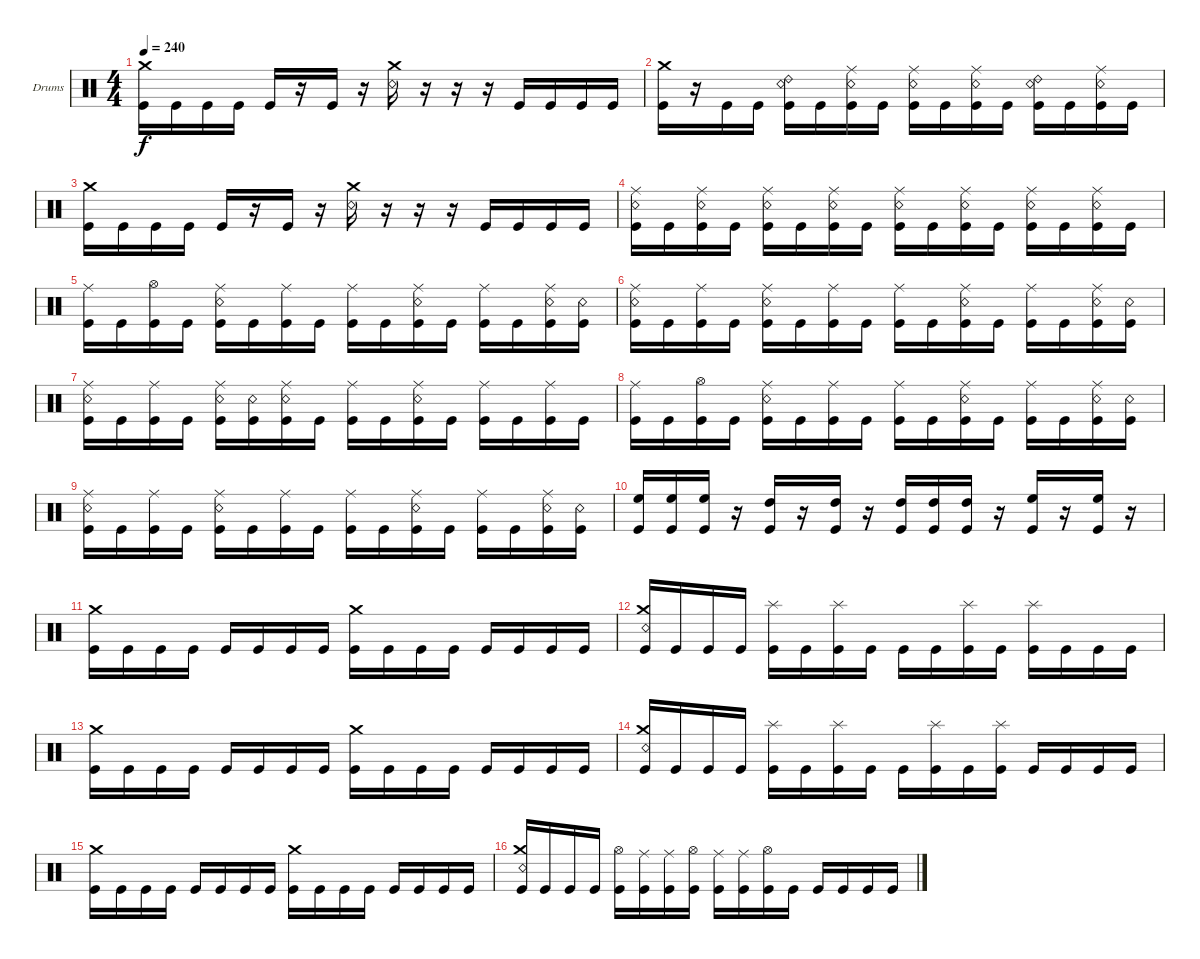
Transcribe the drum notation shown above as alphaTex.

\bracketExtendMode groupsimilarinstruments
\firstSystemTrackNameOrientation horizontal
\otherSystemsTrackNameOrientation horizontal
\track ("Drumkit" "Drums") {instrument percussion}
\staff {score}
\articulation defaults
\ts (4 4)
\tempo 240
\clef neutral
\ks c
("Kick (hit)" "Crash medium (hit)").16{dy f} "Kick (hit)".16 "Kick (hit)".16 "Kick (hit)".16 "Kick (hit)".16 r.16 "Kick (hit)".16 r.16 ("Crash medium (hit)" "Snare (rim shot)").16 r.16 r.16 r.16 "Kick (hit)".16 "Kick (hit)".16 "Kick (hit)".16 "Kick (hit)".16 |
("Kick (hit)" "Crash medium (hit)").16 r.16 "Kick (hit)".16 "Kick (hit)".16 ("Kick (hit)" "Ride (bell) 2" "Snare (rim shot)").16 "Kick (hit)".16 ("Kick (hit)" "Ride (middle)" "Snare (rim shot)").16 "Kick (hit)".16 ("Kick (hit)" "Ride (middle)" "Snare (rim shot)").16 "Kick (hit)".16 ("Kick (hit)" "Ride (middle)" "Snare (rim shot)").16 "Kick (hit)".16 ("Kick (hit)" "Ride (bell) 2" "Snare (rim shot)").16 "Kick (hit)".16 ("Kick (hit)" "Ride (middle)" "Snare (rim shot)").16 "Kick (hit)".16 |
("Kick (hit)" "Crash medium (hit)").16 "Kick (hit)".16 "Kick (hit)".16 "Kick (hit)".16 "Kick (hit)".16 r.16 "Kick (hit)".16 r.16 ("Crash medium (hit)" "Snare (rim shot)").16 r.16 r.16 r.16 "Kick (hit)".16 "Kick (hit)".16 "Kick (hit)".16 "Kick (hit)".16 |
("Kick (hit)" "Ride (middle)" "Snare (rim shot)").16 "Kick (hit)".16 ("Kick (hit)" "Ride (middle)" "Snare (rim shot)").16 "Kick (hit)".16 ("Kick (hit)" "Ride (middle)" "Snare (rim shot)").16 "Kick (hit)".16 ("Kick (hit)" "Ride (middle)" "Snare (rim shot)").16 "Kick (hit)".16 ("Kick (hit)" "Ride (middle)" "Snare (rim shot)").16 "Kick (hit)".16 ("Kick (hit)" "Ride (middle)" "Snare (rim shot)").16 "Kick (hit)".16 ("Kick (hit)" "Ride (middle)" "Snare (rim shot)").16 "Kick (hit)".16 ("Kick (hit)" "Ride (middle)" "Snare (rim shot)").16 "Kick (hit)".16 |
("Ride (middle)" "Kick (hit)").16 "Kick (hit)".16 ("Kick (hit)" "Hi-Hat (open)").16 "Kick (hit)".16 ("Ride (middle)" "Snare (rim shot)" "Kick (hit)").16 "Kick (hit)".16 ("Kick (hit)" "Ride (middle)").16 "Kick (hit)".16 ("Ride (middle)" "Kick (hit)").16 "Kick (hit)".16 ("Snare (rim shot)" "Kick (hit)" "Ride (middle)").16 "Kick (hit)".16 ("Ride (middle)" "Kick (hit)").16 "Kick (hit)".16 ("Snare (rim shot)" "Kick (hit)" "Ride (middle)").16 ("Snare (rim shot)" "Kick (hit)").16 |
("Ride (middle)" "Snare (rim shot)" "Kick (hit)").16 "Kick (hit)".16 ("Kick (hit)" "Ride (middle)").16 "Kick (hit)".16 ("Ride (middle)" "Snare (rim shot)" "Kick (hit)").16 "Kick (hit)".16 ("Kick (hit)" "Ride (middle)").16 "Kick (hit)".16 ("Ride (middle)" "Kick (hit)").16 "Kick (hit)".16 ("Snare (rim shot)" "Kick (hit)" "Ride (middle)").16 "Kick (hit)".16 ("Ride (middle)" "Kick (hit)").16 "Kick (hit)".16 ("Snare (rim shot)" "Kick (hit)" "Ride (middle)").16 ("Snare (rim shot)" "Kick (hit)").16 |
("Ride (middle)" "Snare (rim shot)" "Kick (hit)").16 "Kick (hit)".16 ("Kick (hit)" "Ride (middle)").16 "Kick (hit)".16 ("Ride (middle)" "Snare (rim shot)" "Kick (hit)").16 ("Snare (rim shot)" "Kick (hit)").16 ("Snare (rim shot)" "Kick (hit)" "Ride (middle)").16 "Kick (hit)".16 ("Ride (middle)" "Kick (hit)").16 "Kick (hit)".16 ("Snare (rim shot)" "Kick (hit)" "Ride (middle)").16 "Kick (hit)".16 ("Ride (middle)" "Kick (hit)").16 "Kick (hit)".16 ("Kick (hit)" "Ride (middle)").16 "Kick (hit)".16 |
("Ride (middle)" "Kick (hit)").16 "Kick (hit)".16 ("Kick (hit)" "Hi-Hat (open)").16 "Kick (hit)".16 ("Ride (middle)" "Snare (rim shot)" "Kick (hit)").16 "Kick (hit)".16 ("Kick (hit)" "Ride (middle)").16 "Kick (hit)".16 ("Ride (middle)" "Kick (hit)").16 "Kick (hit)".16 ("Snare (rim shot)" "Kick (hit)" "Ride (middle)").16 "Kick (hit)".16 ("Ride (middle)" "Kick (hit)").16 "Kick (hit)".16 ("Snare (rim shot)" "Kick (hit)" "Ride (middle)").16 ("Snare (rim shot)" "Kick (hit)").16 |
("Ride (middle)" "Snare (rim shot)" "Kick (hit)").16 "Kick (hit)".16 ("Kick (hit)" "Ride (middle)").16 "Kick (hit)".16 ("Ride (middle)" "Snare (rim shot)" "Kick (hit)").16 "Kick (hit)".16 ("Kick (hit)" "Ride (middle)").16 "Kick (hit)".16 ("Ride (middle)" "Kick (hit)").16 "Kick (hit)".16 ("Snare (rim shot)" "Kick (hit)" "Ride (middle)").16 "Kick (hit)".16 ("Ride (middle)" "Kick (hit)").16 "Kick (hit)".16 ("Snare (rim shot)" "Kick (hit)" "Ride (middle)").16 ("Snare (rim shot)" "Kick (hit)").16 |
("Kick (hit)" "High Floor Tom (hit)").16 ("Kick (hit)" "High Floor Tom (hit)").16 ("Kick (hit)" "High Floor Tom (hit)").16 r.16 ("Kick (hit)" "High Tom (hit)").16 r.16 ("Kick (hit)" "High Tom (hit)").16 r.16 ("Kick (hit)" "High Tom (hit)").16 ("Kick (hit)" "High Tom (hit)").16 ("Kick (hit)" "High Tom (hit)").16 r.16 ("Kick (hit)" "High Floor Tom (hit)").16 r.16 ("Kick (hit)" "High Floor Tom (hit)").16 r.16 |
("Kick (hit)" "Crash medium (hit)").16 "Kick (hit)".16 "Kick (hit)".16 "Kick (hit)".16 "Kick (hit)".16 "Kick (hit)".16 "Kick (hit)".16 "Kick (hit)".16 ("Kick (hit)" "Crash medium (hit)").16 "Kick (hit)".16 "Kick (hit)".16 "Kick (hit)".16 "Kick (hit)".16 "Kick (hit)".16 "Kick (hit)".16 "Kick (hit)".16 |
("Kick (hit)" "Crash medium (hit)" "Snare (rim shot)").16 "Kick (hit)".16 "Kick (hit)".16 "Kick (hit)".16 ("Kick (hit)" "Splash (hit)").16 "Kick (hit)".16 ("Kick (hit)" "Splash (hit)").16 "Kick (hit)".16 "Kick (hit)".16 "Kick (hit)".16 ("Kick (hit)" "Splash (hit)").16 "Kick (hit)".16 ("Kick (hit)" "Splash (hit)").16 "Kick (hit)".16 "Kick (hit)".16 "Kick (hit)".16 |
("Kick (hit)" "Crash medium (hit)").16 "Kick (hit)".16 "Kick (hit)".16 "Kick (hit)".16 "Kick (hit)".16 "Kick (hit)".16 "Kick (hit)".16 "Kick (hit)".16 ("Kick (hit)" "Crash medium (hit)").16 "Kick (hit)".16 "Kick (hit)".16 "Kick (hit)".16 "Kick (hit)".16 "Kick (hit)".16 "Kick (hit)".16 "Kick (hit)".16 |
("Kick (hit)" "Crash medium (hit)" "Snare (rim shot)").16 "Kick (hit)".16 "Kick (hit)".16 "Kick (hit)".16 ("Kick (hit)" "Splash (hit)").16 "Kick (hit)".16 ("Kick (hit)" "Splash (hit)").16 "Kick (hit)".16 "Kick (hit)".16 ("Kick (hit)" "Splash (hit)").16 "Kick (hit)".16 ("Kick (hit)" "Splash (hit)").16 "Kick (hit)".16 "Kick (hit)".16 "Kick (hit)".16 "Kick (hit)".16 |
("Kick (hit)" "Crash medium (hit)").16 "Kick (hit)".16 "Kick (hit)".16 "Kick (hit)".16 "Kick (hit)".16 "Kick (hit)".16 "Kick (hit)".16 "Kick (hit)".16 ("Kick (hit)" "Crash medium (hit)").16 "Kick (hit)".16 "Kick (hit)".16 "Kick (hit)".16 "Kick (hit)".16 "Kick (hit)".16 "Kick (hit)".16 "Kick (hit)".16 |
("Kick (hit)" "Crash medium (hit)" "Snare (rim shot)").16 "Kick (hit)".16 "Kick (hit)".16 "Kick (hit)".16 ("Kick (hit)" "Hi-Hat (open)").16 ("Kick (hit)" "Ride (middle)").16 ("Kick (hit)" "Ride (middle)").16 ("Kick (hit)" "Hi-Hat (open)").16 ("Kick (hit)" "Ride (middle)").16 ("Kick (hit)" "Ride (middle)").16 ("Kick (hit)" "Hi-Hat (open)").16 "Kick (hit)".16 "Kick (hit)".16 "Kick (hit)".16 "Kick (hit)".16 "Kick (hit)".16
